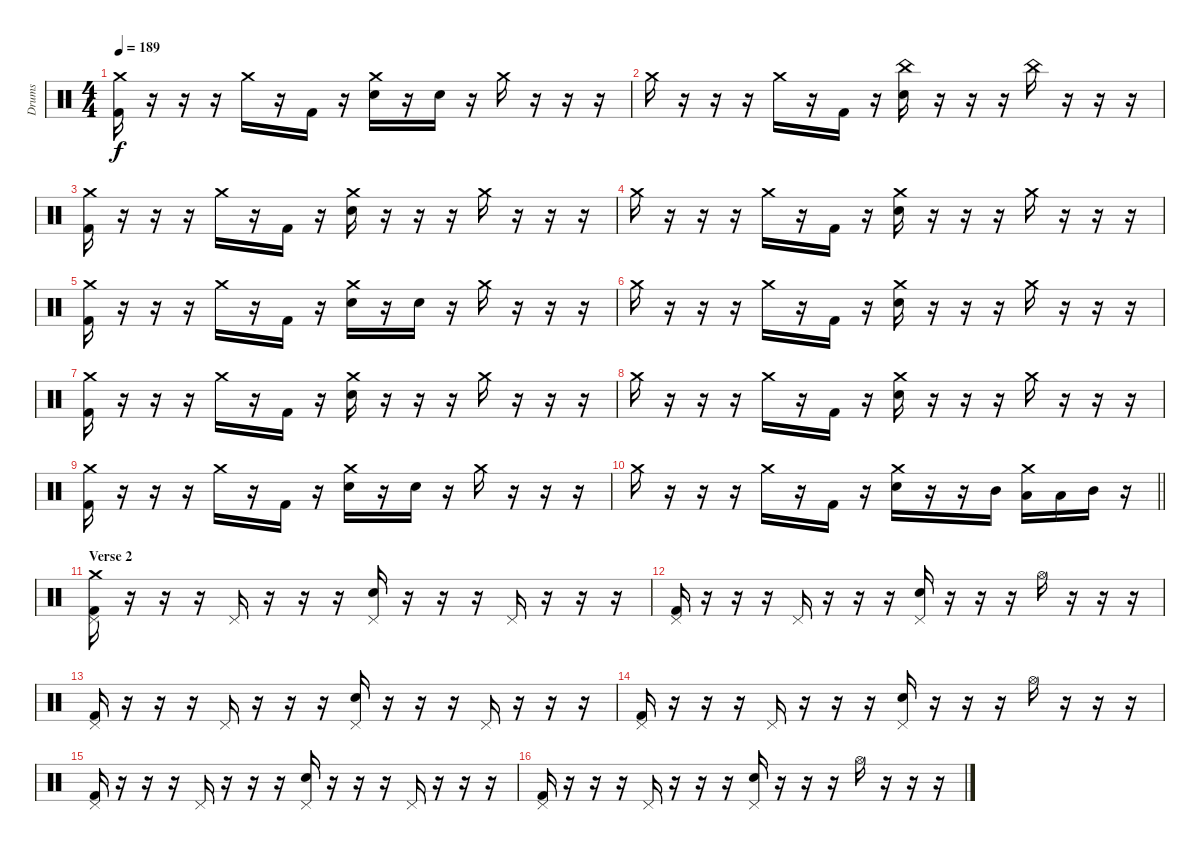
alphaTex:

\track ("Drums" "Drums") {instrument percussion}
\staff {score}
\articulation defaults
\ts (4 4)
\tempo 189
\clef neutral
\ks c
("Crash medium (hit)" "Kick (hit) 2").16{dy f} r.16 r.16 r.16 "Crash medium (hit)".16 r.16 "Kick (hit) 2".16 r.16 ("Crash medium (hit)" "Electric Snare (hit)").16 r.16 "Electric Snare (hit)".16 r.16 "Crash medium (hit)".16 r.16 r.16 r.16 |
"Crash medium (hit)".16 r.16 r.16 r.16 "Crash medium (hit)".16 r.16 "Kick (hit) 2".16 r.16 ("China (hit)" "Electric Snare (hit)").16 r.16 r.16 r.16 "China (hit)".16 r.16 r.16 r.16 |
("Crash medium (hit)" "Kick (hit) 2").16 r.16 r.16 r.16 "Crash medium (hit)".16 r.16 "Kick (hit) 2".16 r.16 ("Crash medium (hit)" "Electric Snare (hit)").16 r.16 r.16 r.16 "Crash medium (hit)".16 r.16 r.16 r.16 |
"Crash medium (hit)".16 r.16 r.16 r.16 "Crash medium (hit)".16 r.16 "Kick (hit) 2".16 r.16 ("Crash medium (hit)" "Electric Snare (hit)").16 r.16 r.16 r.16 "Crash medium (hit)".16 r.16 r.16 r.16 |
("Crash medium (hit)" "Kick (hit) 2").16 r.16 r.16 r.16 "Crash medium (hit)".16 r.16 "Kick (hit) 2".16 r.16 ("Crash medium (hit)" "Electric Snare (hit)").16 r.16 "Electric Snare (hit)".16 r.16 "Crash medium (hit)".16 r.16 r.16 r.16 |
"Crash medium (hit)".16 r.16 r.16 r.16 "Crash medium (hit)".16 r.16 "Kick (hit) 2".16 r.16 ("Crash medium (hit)" "Electric Snare (hit)").16 r.16 r.16 r.16 "Crash medium (hit)".16 r.16 r.16 r.16 |
("Crash medium (hit)" "Kick (hit) 2").16 r.16 r.16 r.16 "Crash medium (hit)".16 r.16 "Kick (hit) 2".16 r.16 ("Crash medium (hit)" "Electric Snare (hit)").16 r.16 r.16 r.16 "Crash medium (hit)".16 r.16 r.16 r.16 |
"Crash medium (hit)".16 r.16 r.16 r.16 "Crash medium (hit)".16 r.16 "Kick (hit) 2".16 r.16 ("Crash medium (hit)" "Electric Snare (hit)").16 r.16 r.16 r.16 "Crash medium (hit)".16 r.16 r.16 r.16 |
("Crash medium (hit)" "Kick (hit) 2").16 r.16 r.16 r.16 "Crash medium (hit)".16 r.16 "Kick (hit) 2".16 r.16 ("Crash medium (hit)" "Electric Snare (hit)").16 r.16 "Electric Snare (hit)".16 r.16 "Crash medium (hit)".16 r.16 r.16 r.16 |
\barLineRight lightlight "Crash medium (hit)".16
r.16 r.16 r.16 "Crash medium (hit)".16 r.16 "Kick (hit) 2".16 r.16 ("Crash medium (hit)" "Electric Snare (hit)").16 r.16 r.16 "Mid Tom (hit)".16 ("Crash medium (hit)" "Low Tom (hit)").16 "Low Floor Tom (hit)".16 "Mid Tom (hit)".16 r.16 |
\section ("" "Verse 2")
("Pedal Hi-Hat (hit)" "Kick (hit) 2" "Crash medium (hit)").16 r.16 r.16 r.16 "Pedal Hi-Hat (hit)".16 r.16 r.16 r.16 ("Pedal Hi-Hat (hit)" "Snare (hit) 2").16 r.16 r.16 r.16 "Pedal Hi-Hat (hit)".16 r.16 r.16 r.16 |
("Pedal Hi-Hat (hit)" "Kick (hit) 2").16 r.16 r.16 r.16 "Pedal Hi-Hat (hit)".16 r.16 r.16 r.16 ("Pedal Hi-Hat (hit)" "Snare (hit) 2").16 r.16 r.16 r.16 "Hi-Hat (open)".16 r.16 r.16 r.16 |
("Pedal Hi-Hat (hit)" "Kick (hit) 2").16 r.16 r.16 r.16 "Pedal Hi-Hat (hit)".16 r.16 r.16 r.16 ("Pedal Hi-Hat (hit)" "Snare (hit) 2").16 r.16 r.16 r.16 "Pedal Hi-Hat (hit)".16 r.16 r.16 r.16 |
("Pedal Hi-Hat (hit)" "Kick (hit) 2").16 r.16 r.16 r.16 "Pedal Hi-Hat (hit)".16 r.16 r.16 r.16 ("Pedal Hi-Hat (hit)" "Snare (hit) 2").16 r.16 r.16 r.16 "Hi-Hat (open)".16 r.16 r.16 r.16 |
("Pedal Hi-Hat (hit)" "Kick (hit) 2").16 r.16 r.16 r.16 "Pedal Hi-Hat (hit)".16 r.16 r.16 r.16 ("Pedal Hi-Hat (hit)" "Snare (hit) 2").16 r.16 r.16 r.16 "Pedal Hi-Hat (hit)".16 r.16 r.16 r.16 |
("Pedal Hi-Hat (hit)" "Kick (hit) 2").16 r.16 r.16 r.16 "Pedal Hi-Hat (hit)".16 r.16 r.16 r.16 ("Pedal Hi-Hat (hit)" "Snare (hit) 2").16 r.16 r.16 r.16 "Hi-Hat (open)".16 r.16 r.16 r.16
